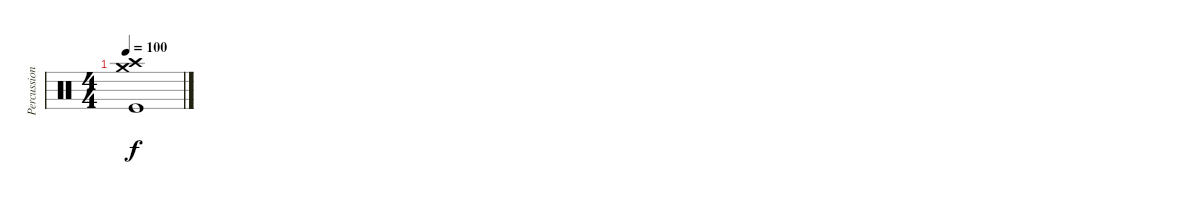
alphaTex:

\track ("Percussion" "Percussion") {instrument percussion}
\staff {score}
\articulation defaults
\ts (4 4)
\tempo 100
\clef neutral
\ks c
("Crash high (hit)" "Crash medium (hit)" "Kick (hit)").1{dy f}
